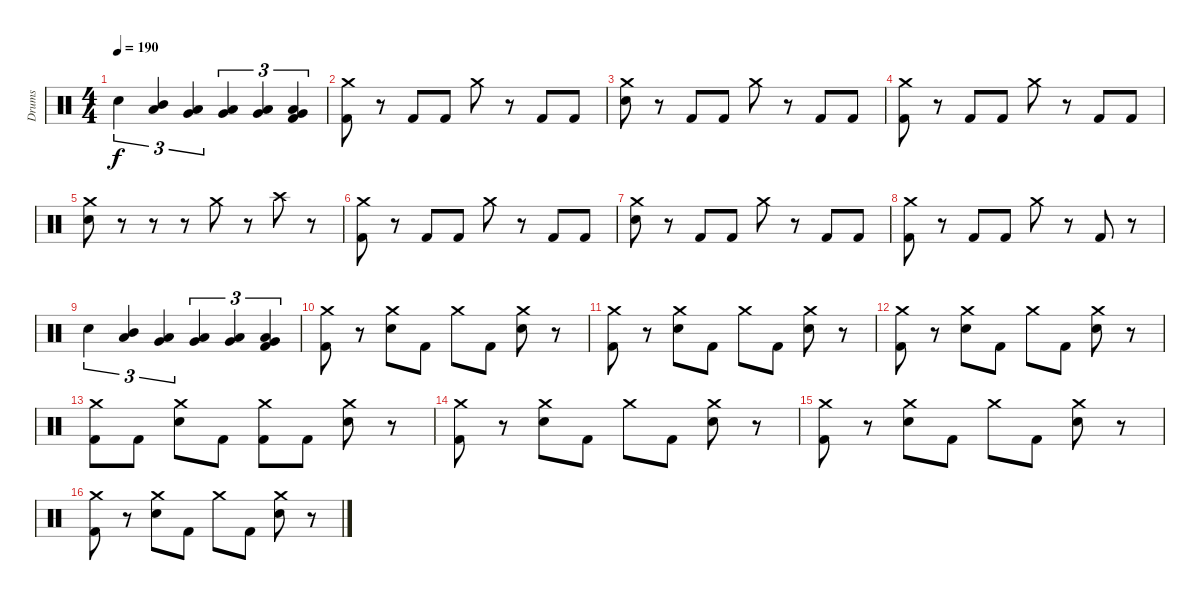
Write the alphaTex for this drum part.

\track ("Drums" "Drums") {instrument percussion}
\staff {score}
\articulation defaults
\ts (4 4)
\tempo 190
\clef neutral
\ks c "Electric Snare (hit)".4{tu (3 2) dy f}
("Low Tom (hit)" "Mid Tom (hit)").4{tu (3 2)} ("Very Low Tom (hit)" "Low Tom (hit)").4{tu (3 2)} ("Very Low Tom (hit)" "Low Tom (hit)").4{tu (3 2)} ("Low Floor Tom (hit)" "Very Low Tom (hit)").4{tu (3 2)} ("Low Floor Tom (hit)" "Very Low Tom (hit)" "Kick (hit) 2").4{tu (3 2)} |
("Crash medium (hit)" "Kick (hit) 2").8 r.8 "Kick (hit) 2".8 "Kick (hit) 2".8 "Crash medium (hit)".8 r.8 "Kick (hit) 2".8 "Kick (hit) 2".8 |
("Crash medium (hit)" "Electric Snare (hit)").8 r.8 "Kick (hit) 2".8 "Kick (hit) 2".8 "Crash medium (hit)".8 r.8 "Kick (hit) 2".8 "Kick (hit) 2".8 |
("Crash medium (hit)" "Kick (hit) 2").8 r.8 "Kick (hit) 2".8 "Kick (hit) 2".8 "Crash medium (hit)".8 r.8 "Kick (hit) 2".8 "Kick (hit) 2".8 |
("Crash medium (hit)" "Electric Snare (hit)").8 r.8 r.8 r.8 "Crash medium (hit)".8 r.8 "Crash high (hit)".8 r.8 |
("Crash medium (hit)" "Kick (hit) 2").8 r.8 "Kick (hit) 2".8 "Kick (hit) 2".8 "Crash medium (hit)".8 r.8 "Kick (hit) 2".8 "Kick (hit) 2".8 |
("Crash medium (hit)" "Electric Snare (hit)").8 r.8 "Kick (hit) 2".8 "Kick (hit) 2".8 "Crash medium (hit)".8 r.8 "Kick (hit) 2".8 "Kick (hit) 2".8 |
("Crash medium (hit)" "Kick (hit) 2").8 r.8 "Kick (hit) 2".8 "Kick (hit) 2".8 "Crash medium (hit)".8 r.8 "Kick (hit) 2".8 r.8 |
"Electric Snare (hit)".4{tu (3 2)} ("Low Tom (hit)" "Mid Tom (hit)").4{tu (3 2)} ("Very Low Tom (hit)" "Low Tom (hit)").4{tu (3 2)} ("Very Low Tom (hit)" "Low Tom (hit)").4{tu (3 2)} ("Low Floor Tom (hit)" "Very Low Tom (hit)").4{tu (3 2)} ("Low Floor Tom (hit)" "Very Low Tom (hit)" "Kick (hit) 2").4{tu (3 2)} |
("Crash medium (hit)" "Kick (hit) 2").8 r.8 ("Crash medium (hit)" "Electric Snare (hit)").8 "Kick (hit) 2".8 "Crash medium (hit)".8 "Kick (hit) 2".8 ("Crash medium (hit)" "Electric Snare (hit)").8 r.8 |
("Crash medium (hit)" "Kick (hit) 2").8 r.8 ("Crash medium (hit)" "Electric Snare (hit)").8 "Kick (hit) 2".8 "Crash medium (hit)".8 "Kick (hit) 2".8 ("Crash medium (hit)" "Electric Snare (hit)").8 r.8 |
("Crash medium (hit)" "Kick (hit) 2").8 r.8 ("Crash medium (hit)" "Electric Snare (hit)").8 "Kick (hit) 2".8 "Crash medium (hit)".8 "Kick (hit) 2".8 ("Crash medium (hit)" "Electric Snare (hit)").8 r.8 |
("Crash medium (hit)" "Kick (hit) 2").8 "Kick (hit) 2".8 ("Crash medium (hit)" "Electric Snare (hit)").8 "Kick (hit) 2".8 ("Crash medium (hit)" "Kick (hit) 2").8 "Kick (hit) 2".8 ("Crash medium (hit)" "Electric Snare (hit)").8 r.8 |
("Crash medium (hit)" "Kick (hit) 2").8 r.8 ("Crash medium (hit)" "Electric Snare (hit)").8 "Kick (hit) 2".8 "Crash medium (hit)".8 "Kick (hit) 2".8 ("Crash medium (hit)" "Electric Snare (hit)").8 r.8 |
("Crash medium (hit)" "Kick (hit) 2").8 r.8 ("Crash medium (hit)" "Electric Snare (hit)").8 "Kick (hit) 2".8 "Crash medium (hit)".8 "Kick (hit) 2".8 ("Crash medium (hit)" "Electric Snare (hit)").8 r.8 |
("Crash medium (hit)" "Kick (hit) 2").8 r.8 ("Crash medium (hit)" "Electric Snare (hit)").8 "Kick (hit) 2".8 "Crash medium (hit)".8 "Kick (hit) 2".8 ("Crash medium (hit)" "Electric Snare (hit)").8 r.8
